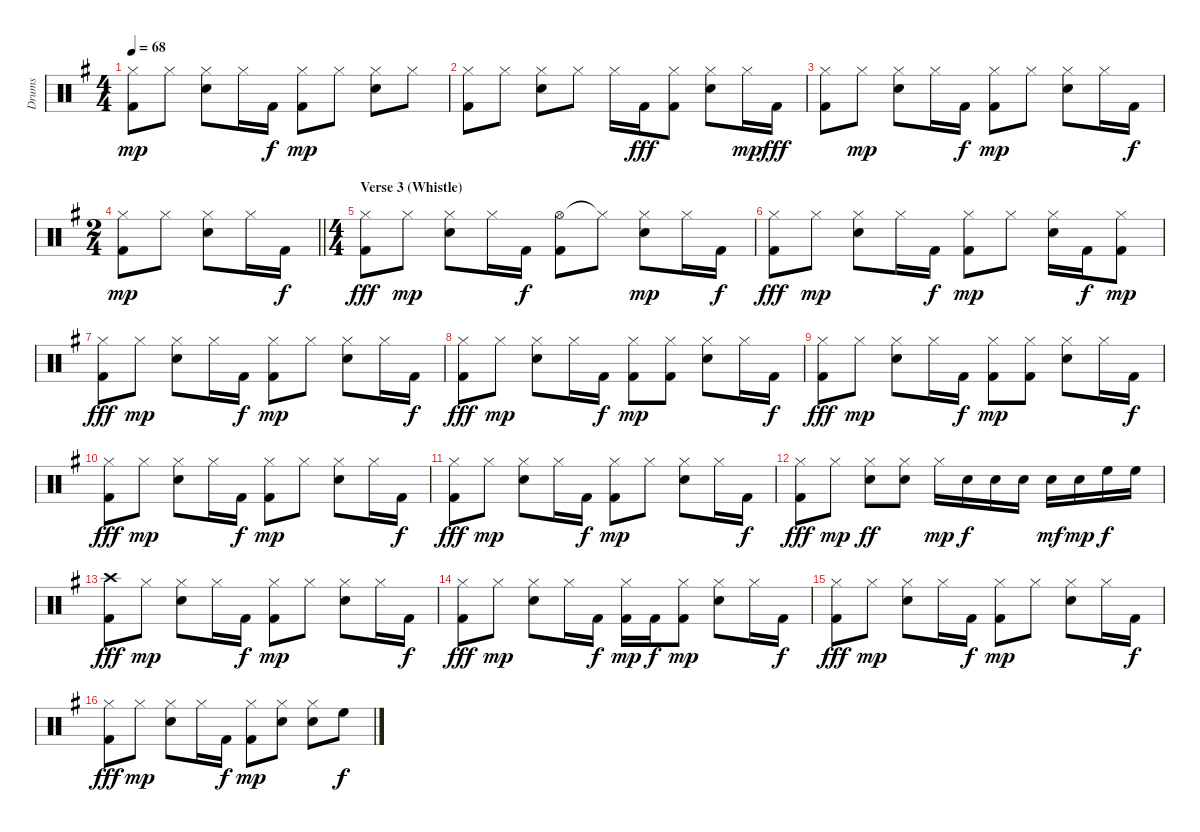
\track ("Drums" "Drums") {instrument percussion}
\staff {score}
\articulation defaults
\ts (4 4)
\tempo 68
\clef neutral
\ks g
("Hi-Hat (closed)" "Kick (hit) 2").8{dy mp} "Hi-Hat (closed)".8 ("Hi-Hat (closed)" "Snare (hit) 2").8 "Hi-Hat (closed)".16 "Kick (hit) 2".16{dy f} ("Hi-Hat (closed)" "Kick (hit) 2").8{dy mp} "Hi-Hat (closed)".8 ("Hi-Hat (closed)" "Snare (hit) 2").8 "Hi-Hat (closed)".8 |
("Hi-Hat (closed)" "Kick (hit) 2").8 "Hi-Hat (closed)".8 ("Hi-Hat (closed)" "Snare (hit) 2").8 "Hi-Hat (closed)".8 "Hi-Hat (closed)".16 "Kick (hit) 2".16{dy fff} ("Hi-Hat (closed)" "Kick (hit) 2").8 ("Hi-Hat (closed)" "Snare (hit) 2").8 "Hi-Hat (closed)".16{dy mp} "Kick (hit) 2".16{dy fff} |
("Hi-Hat (closed)" "Kick (hit) 2").8 "Hi-Hat (closed)".8{dy mp} ("Hi-Hat (closed)" "Snare (hit) 2").8 "Hi-Hat (closed)".16 "Kick (hit) 2".16{dy f} ("Hi-Hat (closed)" "Kick (hit) 2").8{dy mp} "Hi-Hat (closed)".8 ("Hi-Hat (closed)" "Snare (hit) 2").8 "Hi-Hat (closed)".16 "Kick (hit) 2".16{dy f} |
\ts (2 4)
\barLineRight lightlight
("Hi-Hat (closed)" "Kick (hit) 2").8{dy mp} "Hi-Hat (closed)".8 ("Hi-Hat (closed)" "Snare (hit) 2").8 "Hi-Hat (closed)".16 "Kick (hit) 2".16{dy f} |
\ts (4 4)
\section ("" "Verse 3 (Whistle)")
("Hi-Hat (closed)" "Kick (hit) 2").8{dy fff} "Hi-Hat (closed)".8{dy mp} ("Hi-Hat (closed)" "Snare (hit) 2").8 "Hi-Hat (closed)".16 "Kick (hit) 2".16{dy f} ("Hi-Hat (open)" "Kick (hit) 2").8 "Hi-Hat (closed)"{t}.8 ("Hi-Hat (closed)" "Snare (hit) 2").8{dy mp} "Hi-Hat (closed)".16 "Kick (hit) 2".16{dy f} |
("Hi-Hat (closed)" "Kick (hit) 2").8{dy fff} "Hi-Hat (closed)".8{dy mp} ("Hi-Hat (closed)" "Snare (hit) 2").8 "Hi-Hat (closed)".16 "Kick (hit) 2".16{dy f} ("Hi-Hat (closed)" "Kick (hit) 2").8{dy mp} "Hi-Hat (closed)".8 ("Hi-Hat (closed)" "Snare (hit) 2").16 "Kick (hit) 2".16{dy f} ("Hi-Hat (closed)" "Kick (hit) 2").8{dy mp} |
("Hi-Hat (closed)" "Kick (hit) 2").8{dy fff} "Hi-Hat (closed)".8{dy mp} ("Hi-Hat (closed)" "Snare (hit) 2").8 "Hi-Hat (closed)".16 "Kick (hit) 2".16{dy f} ("Hi-Hat (closed)" "Kick (hit) 2").8{dy mp} "Hi-Hat (closed)".8 ("Hi-Hat (closed)" "Snare (hit) 2").8 "Hi-Hat (closed)".16 "Kick (hit) 2".16{dy f} |
("Hi-Hat (closed)" "Kick (hit) 2").8{dy fff} "Hi-Hat (closed)".8{dy mp} ("Hi-Hat (closed)" "Snare (hit) 2").8 "Hi-Hat (closed)".16 "Kick (hit) 2".16{dy f} ("Hi-Hat (closed)" "Kick (hit) 2").8{dy mp} ("Hi-Hat (closed)" "Kick (hit) 2").8 ("Hi-Hat (closed)" "Snare (hit) 2").8 "Hi-Hat (closed)".16 "Kick (hit) 2".16{dy f} |
("Hi-Hat (closed)" "Kick (hit) 2").8{dy fff} "Hi-Hat (closed)".8{dy mp} ("Hi-Hat (closed)" "Snare (hit) 2").8 "Hi-Hat (closed)".16 "Kick (hit) 2".16{dy f} ("Hi-Hat (closed)" "Kick (hit) 2").8{dy mp} ("Hi-Hat (closed)" "Kick (hit) 2").8 ("Hi-Hat (closed)" "Snare (hit) 2").8 "Hi-Hat (closed)".16 "Kick (hit) 2".16{dy f} |
("Hi-Hat (closed)" "Kick (hit) 2").8{dy fff} "Hi-Hat (closed)".8{dy mp} ("Hi-Hat (closed)" "Snare (hit) 2").8 "Hi-Hat (closed)".16 "Kick (hit) 2".16{dy f} ("Hi-Hat (closed)" "Kick (hit) 2").8{dy mp} "Hi-Hat (closed)".8 ("Hi-Hat (closed)" "Snare (hit) 2").8 "Hi-Hat (closed)".16 "Kick (hit) 2".16{dy f} |
("Hi-Hat (closed)" "Kick (hit) 2").8{dy fff} "Hi-Hat (closed)".8{dy mp} ("Hi-Hat (closed)" "Snare (hit) 2").8 "Hi-Hat (closed)".16 "Kick (hit) 2".16{dy f} ("Hi-Hat (closed)" "Kick (hit) 2").8{dy mp} "Hi-Hat (closed)".8 ("Hi-Hat (closed)" "Snare (hit) 2").8 "Hi-Hat (closed)".16 "Kick (hit) 2".16{dy f} |
("Hi-Hat (closed)" "Kick (hit) 2").8{dy fff} "Hi-Hat (closed)".8{dy mp} ("Hi-Hat (closed)" "Snare (hit) 2").8{dy ff} ("Hi-Hat (closed)" "Snare (hit) 2").8 "Hi-Hat (closed)".16{dy mp} "Snare (hit) 2".16{dy f} "Snare (hit) 2".16 "Snare (hit) 2".16 "Snare (hit) 2".16{dy mf} "Snare (hit) 2".16{dy mp} "High Floor Tom (hit)".16{dy f} "High Floor Tom (hit)".16 |
("Crash high (hit)" "Kick (hit) 2").8{dy fff} "Hi-Hat (closed)".8{dy mp} ("Hi-Hat (closed)" "Snare (hit) 2").8 "Hi-Hat (closed)".16 "Kick (hit) 2".16{dy f} ("Hi-Hat (closed)" "Kick (hit) 2").8{dy mp} "Hi-Hat (closed)".8 ("Hi-Hat (closed)" "Snare (hit) 2").8 "Hi-Hat (closed)".16 "Kick (hit) 2".16{dy f} |
("Hi-Hat (closed)" "Kick (hit) 2").8{dy fff} "Hi-Hat (closed)".8{dy mp} ("Hi-Hat (closed)" "Snare (hit) 2").8 "Hi-Hat (closed)".16 "Kick (hit) 2".16{dy f} ("Hi-Hat (closed)" "Kick (hit) 2").16{dy mp} "Kick (hit) 2".16{dy f} ("Hi-Hat (closed)" "Kick (hit) 2").8{dy mp} ("Hi-Hat (closed)" "Snare (hit) 2").8 "Hi-Hat (closed)".16 "Kick (hit) 2".16{dy f} |
("Hi-Hat (closed)" "Kick (hit) 2").8{dy fff} "Hi-Hat (closed)".8{dy mp} ("Hi-Hat (closed)" "Snare (hit) 2").8 "Hi-Hat (closed)".16 "Kick (hit) 2".16{dy f} ("Hi-Hat (closed)" "Kick (hit) 2").8{dy mp} "Hi-Hat (closed)".8 ("Hi-Hat (closed)" "Snare (hit) 2").8 "Hi-Hat (closed)".16 "Kick (hit) 2".16{dy f} |
("Hi-Hat (closed)" "Kick (hit) 2").8{dy fff} "Hi-Hat (closed)".8{dy mp} ("Hi-Hat (closed)" "Snare (hit) 2").8 "Hi-Hat (closed)".16 "Kick (hit) 2".16{dy f} ("Hi-Hat (closed)" "Kick (hit) 2").8{dy mp} ("Hi-Hat (closed)" "Snare (hit) 2").8 ("Hi-Hat (closed)" "Snare (hit) 2").8 "High Floor Tom (hit)".8{dy f}
